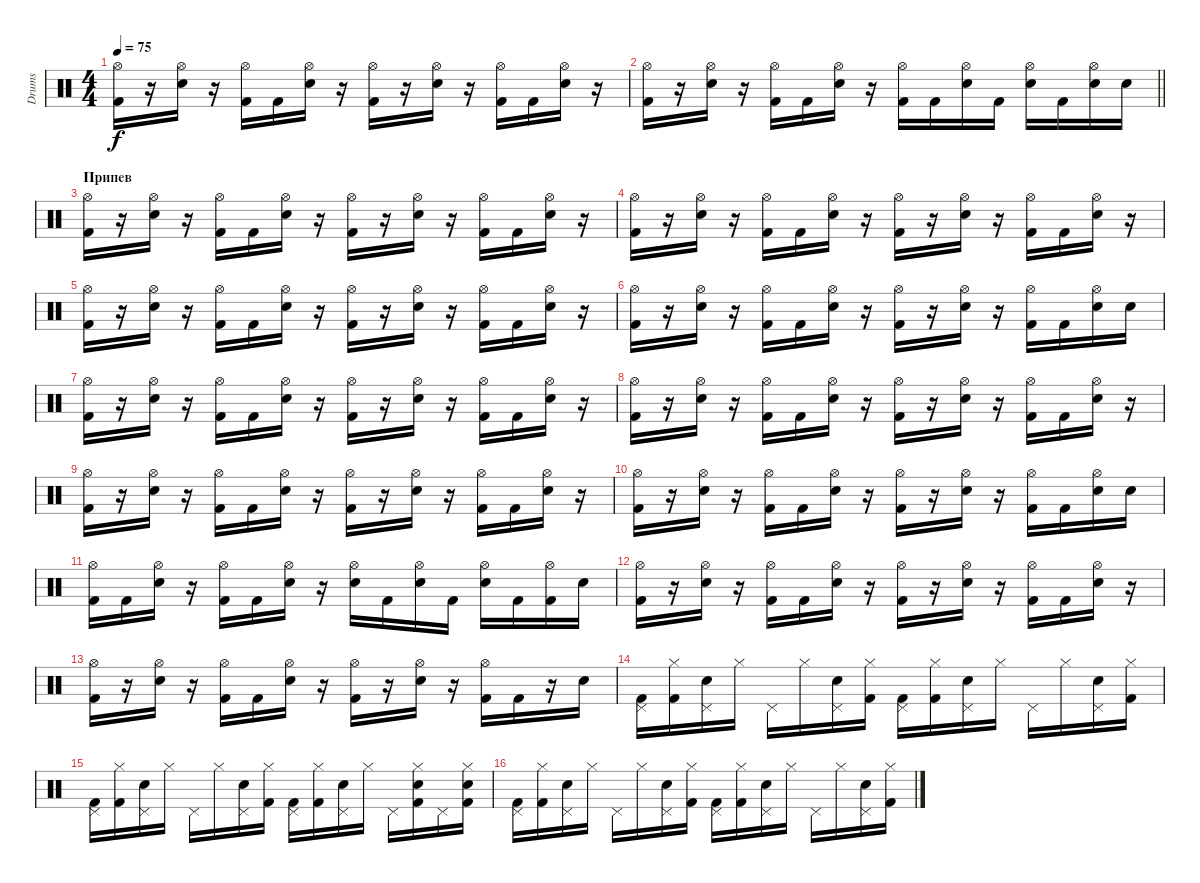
\track ("Drums" "Drums") {instrument percussion}
\staff {score}
\articulation defaults
\ts (4 4)
\tempo 75
\clef neutral
\ks c
("Kick (hit) 2" "Hi-Hat (open)").16{dy f} r.16 ("Electric Snare (hit)" "Hi-Hat (open)").16 r.16 ("Kick (hit) 2" "Hi-Hat (open)").16 "Kick (hit) 2".16 ("Electric Snare (hit)" "Hi-Hat (open)").16 r.16 ("Kick (hit) 2" "Hi-Hat (open)").16 r.16 ("Electric Snare (hit)" "Hi-Hat (open)").16 r.16 ("Kick (hit) 2" "Hi-Hat (open)").16 "Kick (hit) 2".16 ("Electric Snare (hit)" "Hi-Hat (open)").16 r.16 |
\barLineRight lightlight
("Kick (hit) 2" "Hi-Hat (open)").16 r.16 ("Electric Snare (hit)" "Hi-Hat (open)").16 r.16 ("Kick (hit) 2" "Hi-Hat (open)").16 "Kick (hit) 2".16 ("Electric Snare (hit)" "Hi-Hat (open)").16 r.16 ("Kick (hit) 2" "Hi-Hat (open)").16 "Kick (hit) 2".16 ("Electric Snare (hit)" "Hi-Hat (open)").16 "Kick (hit) 2".16 ("Electric Snare (hit)" "Hi-Hat (open)").16 "Kick (hit) 2".16 ("Electric Snare (hit)" "Hi-Hat (open)").16 "Electric Snare (hit)".16 |
\section ("" "Припев")
("Kick (hit) 2" "Hi-Hat (open)").16 r.16 ("Electric Snare (hit)" "Hi-Hat (open)").16 r.16 ("Kick (hit) 2" "Hi-Hat (open)").16 "Kick (hit) 2".16 ("Electric Snare (hit)" "Hi-Hat (open)").16 r.16 ("Kick (hit) 2" "Hi-Hat (open)").16 r.16 ("Electric Snare (hit)" "Hi-Hat (open)").16 r.16 ("Kick (hit) 2" "Hi-Hat (open)").16 "Kick (hit) 2".16 ("Electric Snare (hit)" "Hi-Hat (open)").16 r.16 |
("Kick (hit) 2" "Hi-Hat (open)").16 r.16 ("Electric Snare (hit)" "Hi-Hat (open)").16 r.16 ("Kick (hit) 2" "Hi-Hat (open)").16 "Kick (hit) 2".16 ("Electric Snare (hit)" "Hi-Hat (open)").16 r.16 ("Kick (hit) 2" "Hi-Hat (open)").16 r.16 ("Electric Snare (hit)" "Hi-Hat (open)").16 r.16 ("Kick (hit) 2" "Hi-Hat (open)").16 "Kick (hit) 2".16 ("Electric Snare (hit)" "Hi-Hat (open)").16 r.16 |
("Kick (hit) 2" "Hi-Hat (open)").16 r.16 ("Electric Snare (hit)" "Hi-Hat (open)").16 r.16 ("Kick (hit) 2" "Hi-Hat (open)").16 "Kick (hit) 2".16 ("Electric Snare (hit)" "Hi-Hat (open)").16 r.16 ("Kick (hit) 2" "Hi-Hat (open)").16 r.16 ("Electric Snare (hit)" "Hi-Hat (open)").16 r.16 ("Kick (hit) 2" "Hi-Hat (open)").16 "Kick (hit) 2".16 ("Electric Snare (hit)" "Hi-Hat (open)").16 r.16 |
("Kick (hit) 2" "Hi-Hat (open)").16 r.16 ("Electric Snare (hit)" "Hi-Hat (open)").16 r.16 ("Kick (hit) 2" "Hi-Hat (open)").16 "Kick (hit) 2".16 ("Electric Snare (hit)" "Hi-Hat (open)").16 r.16 ("Kick (hit) 2" "Hi-Hat (open)").16 r.16 ("Electric Snare (hit)" "Hi-Hat (open)").16 r.16 ("Kick (hit) 2" "Hi-Hat (open)").16 "Kick (hit) 2".16 ("Electric Snare (hit)" "Hi-Hat (open)").16 "Electric Snare (hit)".16 |
("Kick (hit) 2" "Hi-Hat (open)").16 r.16 ("Electric Snare (hit)" "Hi-Hat (open)").16 r.16 ("Kick (hit) 2" "Hi-Hat (open)").16 "Kick (hit) 2".16 ("Electric Snare (hit)" "Hi-Hat (open)").16 r.16 ("Kick (hit) 2" "Hi-Hat (open)").16 r.16 ("Electric Snare (hit)" "Hi-Hat (open)").16 r.16 ("Kick (hit) 2" "Hi-Hat (open)").16 "Kick (hit) 2".16 ("Electric Snare (hit)" "Hi-Hat (open)").16 r.16 |
("Kick (hit) 2" "Hi-Hat (open)").16 r.16 ("Electric Snare (hit)" "Hi-Hat (open)").16 r.16 ("Kick (hit) 2" "Hi-Hat (open)").16 "Kick (hit) 2".16 ("Electric Snare (hit)" "Hi-Hat (open)").16 r.16 ("Kick (hit) 2" "Hi-Hat (open)").16 r.16 ("Electric Snare (hit)" "Hi-Hat (open)").16 r.16 ("Kick (hit) 2" "Hi-Hat (open)").16 "Kick (hit) 2".16 ("Electric Snare (hit)" "Hi-Hat (open)").16 r.16 |
("Kick (hit) 2" "Hi-Hat (open)").16 r.16 ("Electric Snare (hit)" "Hi-Hat (open)").16 r.16 ("Kick (hit) 2" "Hi-Hat (open)").16 "Kick (hit) 2".16 ("Electric Snare (hit)" "Hi-Hat (open)").16 r.16 ("Kick (hit) 2" "Hi-Hat (open)").16 r.16 ("Electric Snare (hit)" "Hi-Hat (open)").16 r.16 ("Kick (hit) 2" "Hi-Hat (open)").16 "Kick (hit) 2".16 ("Electric Snare (hit)" "Hi-Hat (open)").16 r.16 |
("Kick (hit) 2" "Hi-Hat (open)").16 r.16 ("Electric Snare (hit)" "Hi-Hat (open)").16 r.16 ("Kick (hit) 2" "Hi-Hat (open)").16 "Kick (hit) 2".16 ("Electric Snare (hit)" "Hi-Hat (open)").16 r.16 ("Kick (hit) 2" "Hi-Hat (open)").16 r.16 ("Electric Snare (hit)" "Hi-Hat (open)").16 r.16 ("Kick (hit) 2" "Hi-Hat (open)").16 "Kick (hit) 2".16 ("Electric Snare (hit)" "Hi-Hat (open)").16 "Electric Snare (hit)".16 |
("Kick (hit) 2" "Hi-Hat (open)").16 "Kick (hit) 2".16 ("Electric Snare (hit)" "Hi-Hat (open)").16 r.16 ("Kick (hit) 2" "Hi-Hat (open)").16 "Kick (hit) 2".16 ("Electric Snare (hit)" "Hi-Hat (open)").16 r.16 ("Electric Snare (hit)" "Hi-Hat (open)").16 "Kick (hit) 2".16 ("Electric Snare (hit)" "Hi-Hat (open)").16 "Kick (hit) 2".16 ("Electric Snare (hit)" "Hi-Hat (open)").16 "Kick (hit) 2".16 ("Kick (hit) 2" "Hi-Hat (open)").16 "Electric Snare (hit)".16 |
("Kick (hit) 2" "Hi-Hat (open)").16 r.16 ("Electric Snare (hit)" "Hi-Hat (open)").16 r.16 ("Kick (hit) 2" "Hi-Hat (open)").16 "Kick (hit) 2".16 ("Electric Snare (hit)" "Hi-Hat (open)").16 r.16 ("Kick (hit) 2" "Hi-Hat (open)").16 r.16 ("Electric Snare (hit)" "Hi-Hat (open)").16 r.16 ("Kick (hit) 2" "Hi-Hat (open)").16 "Kick (hit) 2".16 ("Electric Snare (hit)" "Hi-Hat (open)").16 r.16 |
("Kick (hit) 2" "Hi-Hat (open)").16 r.16 ("Electric Snare (hit)" "Hi-Hat (open)").16 r.16 ("Kick (hit) 2" "Hi-Hat (open)").16 "Kick (hit) 2".16 ("Electric Snare (hit)" "Hi-Hat (open)").16 r.16 ("Kick (hit) 2" "Hi-Hat (open)").16 r.16 ("Electric Snare (hit)" "Hi-Hat (open)").16 r.16 ("Kick (hit) 2" "Hi-Hat (open)").16 "Kick (hit) 2".16 r.16 "Electric Snare (hit)".16 |
("Kick (hit) 2" "Pedal Hi-Hat (hit)").16 ("Kick (hit) 2" "Hi-Hat (closed)").16 ("Electric Snare (hit)" "Pedal Hi-Hat (hit)").16 "Hi-Hat (closed)".16 "Pedal Hi-Hat (hit)".16 "Hi-Hat (closed)".16 ("Electric Snare (hit)" "Pedal Hi-Hat (hit)").16 ("Kick (hit) 2" "Hi-Hat (closed)").16 ("Kick (hit) 2" "Pedal Hi-Hat (hit)").16 ("Kick (hit) 2" "Hi-Hat (closed)").16 ("Electric Snare (hit)" "Pedal Hi-Hat (hit)").16 "Hi-Hat (closed)".16 "Pedal Hi-Hat (hit)".16 "Hi-Hat (closed)".16 ("Electric Snare (hit)" "Pedal Hi-Hat (hit)").16 ("Kick (hit) 2" "Hi-Hat (closed)").16 |
("Kick (hit) 2" "Pedal Hi-Hat (hit)").16 ("Kick (hit) 2" "Hi-Hat (closed)").16 ("Electric Snare (hit)" "Pedal Hi-Hat (hit)").16 "Hi-Hat (closed)".16 "Pedal Hi-Hat (hit)".16 "Hi-Hat (closed)".16 ("Electric Snare (hit)" "Pedal Hi-Hat (hit)").16 ("Kick (hit) 2" "Hi-Hat (closed)").16 ("Kick (hit) 2" "Pedal Hi-Hat (hit)").16 ("Kick (hit) 2" "Hi-Hat (closed)").16 ("Electric Snare (hit)" "Pedal Hi-Hat (hit)").16 "Hi-Hat (closed)".16 "Pedal Hi-Hat (hit)".16 ("Kick (hit) 2" "Electric Snare (hit)" "Hi-Hat (closed)").16 "Pedal Hi-Hat (hit)".16 ("Kick (hit) 2" "Electric Snare (hit)" "Hi-Hat (closed)").16 |
("Kick (hit) 2" "Pedal Hi-Hat (hit)").16 ("Kick (hit) 2" "Hi-Hat (closed)").16 ("Electric Snare (hit)" "Pedal Hi-Hat (hit)").16 "Hi-Hat (closed)".16 "Pedal Hi-Hat (hit)".16 "Hi-Hat (closed)".16 ("Electric Snare (hit)" "Pedal Hi-Hat (hit)").16 ("Kick (hit) 2" "Hi-Hat (closed)").16 ("Kick (hit) 2" "Pedal Hi-Hat (hit)").16 ("Kick (hit) 2" "Hi-Hat (closed)").16 ("Electric Snare (hit)" "Pedal Hi-Hat (hit)").16 "Hi-Hat (closed)".16 "Pedal Hi-Hat (hit)".16 "Hi-Hat (closed)".16 ("Electric Snare (hit)" "Pedal Hi-Hat (hit)").16 ("Kick (hit) 2" "Hi-Hat (closed)").16
